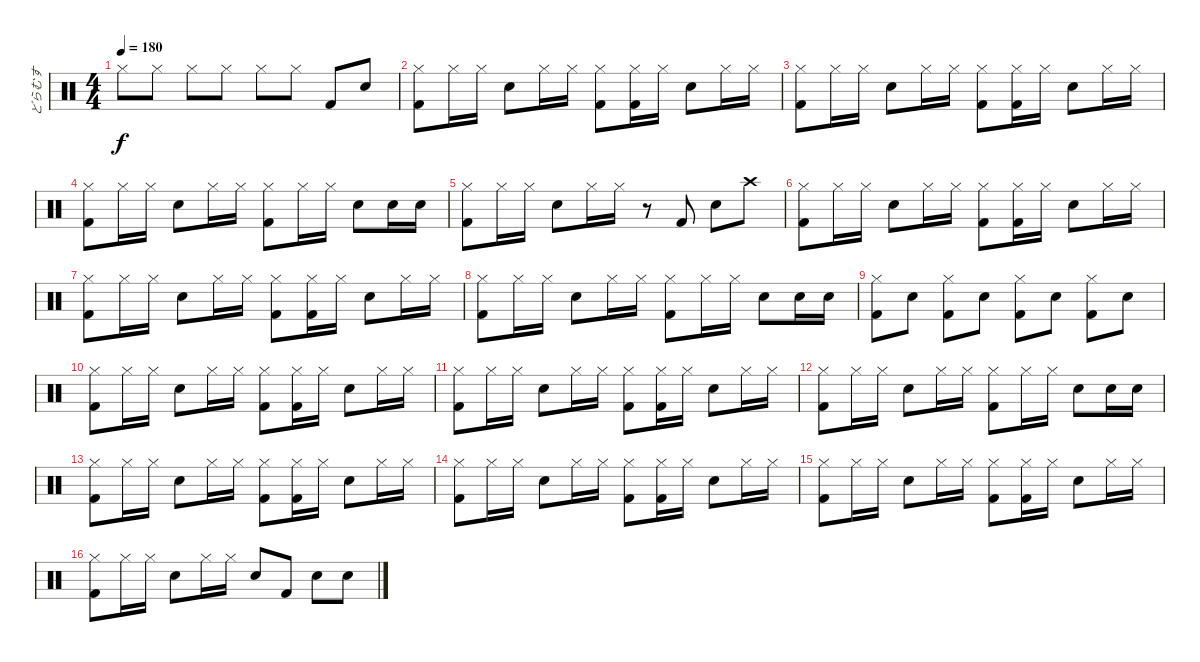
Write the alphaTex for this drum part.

\track ("どらむす" "どらむす") {instrument percussion}
\staff {score}
\articulation defaults
\ts (4 4)
\tempo 180
\clef neutral
\ks c "Hi-Hat (closed)".8{dy f} "Hi-Hat (closed)".8 "Hi-Hat (closed)".8 "Hi-Hat (closed)".8 "Hi-Hat (closed)".8 "Hi-Hat (closed)".8 "Kick (hit) 2".8 "Electric Snare (hit)".8
|
("Hi-Hat (closed)" "Kick (hit) 2").8 "Hi-Hat (closed)".16 "Hi-Hat (closed)".16 "Electric Snare (hit)".8 "Hi-Hat (closed)".16 "Hi-Hat (closed)".16 ("Hi-Hat (closed)" "Kick (hit) 2").8 ("Hi-Hat (closed)" "Kick (hit) 2").16 "Hi-Hat (closed)".16 "Electric Snare (hit)".8 "Hi-Hat (closed)".16 "Hi-Hat (closed)".16 |
("Hi-Hat (closed)" "Kick (hit) 2").8 "Hi-Hat (closed)".16 "Hi-Hat (closed)".16 "Electric Snare (hit)".8 "Hi-Hat (closed)".16 "Hi-Hat (closed)".16 ("Hi-Hat (closed)" "Kick (hit) 2").8 ("Hi-Hat (closed)" "Kick (hit) 2").16 "Hi-Hat (closed)".16 "Electric Snare (hit)".8 "Hi-Hat (closed)".16 "Hi-Hat (closed)".16 |
("Hi-Hat (closed)" "Kick (hit) 2").8 "Hi-Hat (closed)".16 "Hi-Hat (closed)".16 "Electric Snare (hit)".8 "Hi-Hat (closed)".16 "Hi-Hat (closed)".16 ("Hi-Hat (closed)" "Kick (hit) 2").8 "Hi-Hat (closed)".16 "Hi-Hat (closed)".16 "Electric Snare (hit)".8 "Electric Snare (hit)".16 "Electric Snare (hit)".16 |
("Hi-Hat (closed)" "Kick (hit) 2").8 "Hi-Hat (closed)".16 "Hi-Hat (closed)".16 "Electric Snare (hit)".8 "Hi-Hat (closed)".16 "Hi-Hat (closed)".16 r.8 "Kick (hit) 2".8 "Electric Snare (hit)".8 "Crash high (hit)".8 |
("Hi-Hat (closed)" "Kick (hit) 2").8 "Hi-Hat (closed)".16 "Hi-Hat (closed)".16 "Electric Snare (hit)".8 "Hi-Hat (closed)".16 "Hi-Hat (closed)".16 ("Hi-Hat (closed)" "Kick (hit) 2").8 ("Hi-Hat (closed)" "Kick (hit) 2").16 "Hi-Hat (closed)".16 "Electric Snare (hit)".8 "Hi-Hat (closed)".16 "Hi-Hat (closed)".16 |
("Hi-Hat (closed)" "Kick (hit) 2").8 "Hi-Hat (closed)".16 "Hi-Hat (closed)".16 "Electric Snare (hit)".8 "Hi-Hat (closed)".16 "Hi-Hat (closed)".16 ("Hi-Hat (closed)" "Kick (hit) 2").8 ("Hi-Hat (closed)" "Kick (hit) 2").16 "Hi-Hat (closed)".16 "Electric Snare (hit)".8 "Hi-Hat (closed)".16 "Hi-Hat (closed)".16 |
("Hi-Hat (closed)" "Kick (hit) 2").8 "Hi-Hat (closed)".16 "Hi-Hat (closed)".16 "Electric Snare (hit)".8 "Hi-Hat (closed)".16 "Hi-Hat (closed)".16 ("Hi-Hat (closed)" "Kick (hit) 2").8 "Hi-Hat (closed)".16 "Hi-Hat (closed)".16 "Electric Snare (hit)".8 "Electric Snare (hit)".16 "Electric Snare (hit)".16 |
("Hi-Hat (closed)" "Kick (hit) 2").8 "Electric Snare (hit)".8 ("Hi-Hat (closed)" "Kick (hit) 2").8 "Electric Snare (hit)".8 ("Hi-Hat (closed)" "Kick (hit) 2").8 "Electric Snare (hit)".8 ("Hi-Hat (closed)" "Kick (hit) 2").8 "Electric Snare (hit)".8 |
("Hi-Hat (closed)" "Kick (hit) 2").8 "Hi-Hat (closed)".16 "Hi-Hat (closed)".16 "Electric Snare (hit)".8 "Hi-Hat (closed)".16 "Hi-Hat (closed)".16 ("Hi-Hat (closed)" "Kick (hit) 2").8 ("Hi-Hat (closed)" "Kick (hit) 2").16 "Hi-Hat (closed)".16 "Electric Snare (hit)".8 "Hi-Hat (closed)".16 "Hi-Hat (closed)".16 |
("Hi-Hat (closed)" "Kick (hit) 2").8 "Hi-Hat (closed)".16 "Hi-Hat (closed)".16 "Electric Snare (hit)".8 "Hi-Hat (closed)".16 "Hi-Hat (closed)".16 ("Hi-Hat (closed)" "Kick (hit) 2").8 ("Hi-Hat (closed)" "Kick (hit) 2").16 "Hi-Hat (closed)".16 "Electric Snare (hit)".8 "Hi-Hat (closed)".16 "Hi-Hat (closed)".16 |
("Hi-Hat (closed)" "Kick (hit) 2").8 "Hi-Hat (closed)".16 "Hi-Hat (closed)".16 "Electric Snare (hit)".8 "Hi-Hat (closed)".16 "Hi-Hat (closed)".16 ("Hi-Hat (closed)" "Kick (hit) 2").8 "Hi-Hat (closed)".16 "Hi-Hat (closed)".16 "Electric Snare (hit)".8 "Electric Snare (hit)".16 "Electric Snare (hit)".16 |
("Hi-Hat (closed)" "Kick (hit) 2").8 "Hi-Hat (closed)".16 "Hi-Hat (closed)".16 "Electric Snare (hit)".8 "Hi-Hat (closed)".16 "Hi-Hat (closed)".16 ("Hi-Hat (closed)" "Kick (hit) 2").8 ("Hi-Hat (closed)" "Kick (hit) 2").16 "Hi-Hat (closed)".16 "Electric Snare (hit)".8 "Hi-Hat (closed)".16 "Hi-Hat (closed)".16 |
("Hi-Hat (closed)" "Kick (hit) 2").8 "Hi-Hat (closed)".16 "Hi-Hat (closed)".16 "Electric Snare (hit)".8 "Hi-Hat (closed)".16 "Hi-Hat (closed)".16 ("Hi-Hat (closed)" "Kick (hit) 2").8 ("Hi-Hat (closed)" "Kick (hit) 2").16 "Hi-Hat (closed)".16 "Electric Snare (hit)".8 "Hi-Hat (closed)".16 "Hi-Hat (closed)".16 |
("Hi-Hat (closed)" "Kick (hit) 2").8 "Hi-Hat (closed)".16 "Hi-Hat (closed)".16 "Electric Snare (hit)".8 "Hi-Hat (closed)".16 "Hi-Hat (closed)".16 ("Hi-Hat (closed)" "Kick (hit) 2").8 ("Hi-Hat (closed)" "Kick (hit) 2").16 "Hi-Hat (closed)".16 "Electric Snare (hit)".8 "Hi-Hat (closed)".16 "Hi-Hat (closed)".16 |
("Hi-Hat (closed)" "Kick (hit) 2").8 "Hi-Hat (closed)".16 "Hi-Hat (closed)".16 "Electric Snare (hit)".8 "Hi-Hat (closed)".16 "Hi-Hat (closed)".16 "Electric Snare (hit)".8 "Kick (hit) 2".8 "Electric Snare (hit)".8 "Electric Snare (hit)".8
